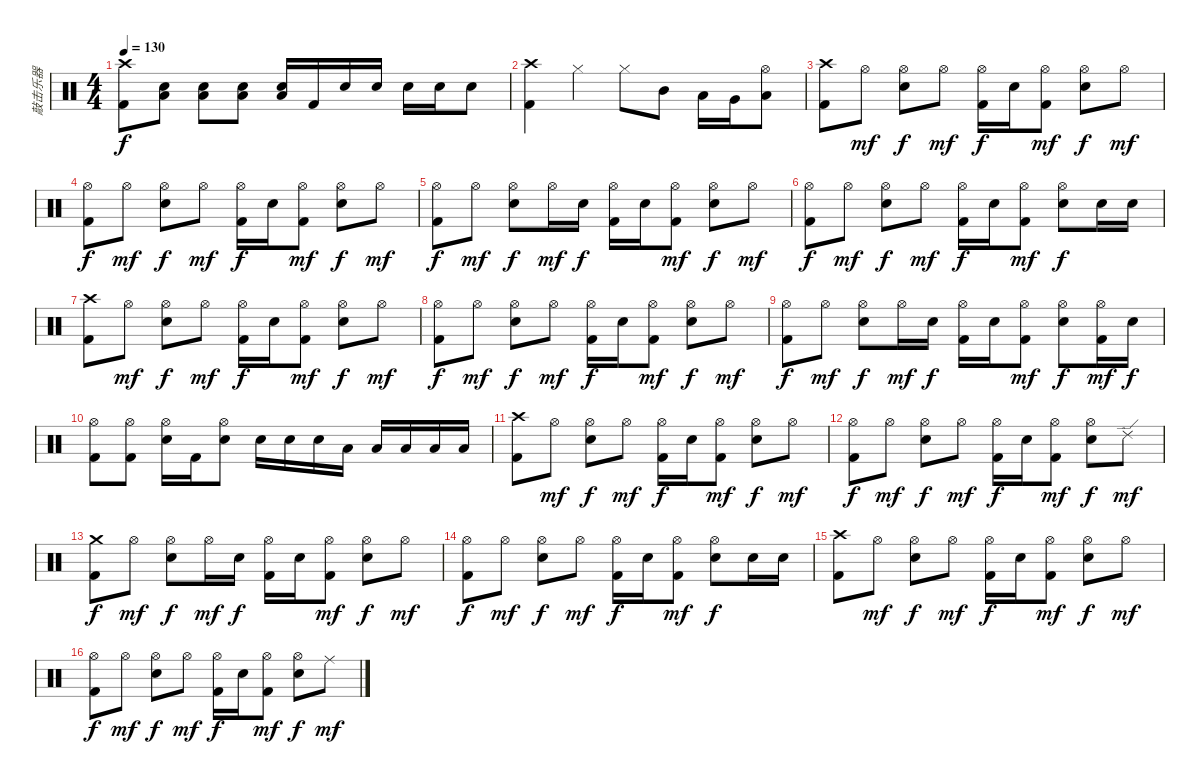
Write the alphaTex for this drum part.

\track ("敲击乐器" "敲击乐器") {instrument percussion}
\staff {score}
\articulation defaults
\ts (4 4)
\tempo 130
\clef neutral
\ks c
("Crash high (hit)" "Kick (hit) 2").8{dy f} ("Low Floor Tom (hit)" "Snare (hit) 2").8 ("Low Floor Tom (hit)" "Snare (hit) 2").8 ("Low Floor Tom (hit)" "Snare (hit) 2").8 ("Low Floor Tom (hit)" "Snare (hit) 2").16 "Kick (hit) 2".16 "Snare (hit) 2".16 "Snare (hit) 2".16 "Snare (hit) 2".16 "Snare (hit) 2".16 "Snare (hit) 2".8 |
("Crash high (hit)" "Kick (hit) 2").4 "Hi-Hat (closed)".4 "Hi-Hat (closed)".8 "Mid Tom (hit)".8 "Low Tom (hit)".16 "Very Low Tom (hit)".16 ("Hi-Hat (open)" "Low Floor Tom (hit)").8 |
("Crash high (hit)" "Kick (hit) 2").8 "Hi-Hat (open)".8{dy mf} ("Hi-Hat (open)" "Snare (hit) 2").8{dy f} "Hi-Hat (open)".8{dy mf} ("Hi-Hat (open)" "Kick (hit) 2").16{dy f} "Snare (hit) 2".16 ("Hi-Hat (open)" "Kick (hit) 2").8{dy mf} ("Hi-Hat (open)" "Snare (hit) 2").8{dy f} "Hi-Hat (open)".8{dy mf} |
("Hi-Hat (open)" "Kick (hit) 2").8{dy f} "Hi-Hat (open)".8{dy mf} ("Hi-Hat (open)" "Snare (hit) 2").8{dy f} "Hi-Hat (open)".8{dy mf} ("Hi-Hat (open)" "Kick (hit) 2").16{dy f} "Snare (hit) 2".16 ("Hi-Hat (open)" "Kick (hit) 2").8{dy mf} ("Hi-Hat (open)" "Snare (hit) 2").8{dy f} "Hi-Hat (open)".8{dy mf} |
("Hi-Hat (open)" "Kick (hit) 2").8{dy f} "Hi-Hat (open)".8{dy mf} ("Hi-Hat (open)" "Snare (hit) 2").8{dy f} "Hi-Hat (open)".16{dy mf} "Snare (hit) 2".16{dy f} ("Hi-Hat (open)" "Kick (hit) 2").16 "Snare (hit) 2".16 ("Hi-Hat (open)" "Kick (hit) 2").8{dy mf} ("Hi-Hat (open)" "Snare (hit) 2").8{dy f} "Hi-Hat (open)".8{dy mf} |
("Hi-Hat (open)" "Kick (hit) 2").8{dy f} "Hi-Hat (open)".8{dy mf} ("Hi-Hat (open)" "Snare (hit) 2").8{dy f} "Hi-Hat (open)".8{dy mf} ("Hi-Hat (open)" "Kick (hit) 2").16{dy f} "Snare (hit) 2".16 ("Hi-Hat (open)" "Kick (hit) 2").8{dy mf} ("Hi-Hat (open)" "Snare (hit) 2").8{dy f} "Snare (hit) 2".16 "Snare (hit) 2".16 |
("Crash high (hit)" "Kick (hit) 2").8 "Hi-Hat (open)".8{dy mf} ("Hi-Hat (open)" "Snare (hit) 2").8{dy f} "Hi-Hat (open)".8{dy mf} ("Hi-Hat (open)" "Kick (hit) 2").16{dy f} "Snare (hit) 2".16 ("Hi-Hat (open)" "Kick (hit) 2").8{dy mf} ("Hi-Hat (open)" "Snare (hit) 2").8{dy f} "Hi-Hat (open)".8{dy mf} |
("Hi-Hat (open)" "Kick (hit) 2").8{dy f} "Hi-Hat (open)".8{dy mf} ("Hi-Hat (open)" "Snare (hit) 2").8{dy f} "Hi-Hat (open)".8{dy mf} ("Hi-Hat (open)" "Kick (hit) 2").16{dy f} "Snare (hit) 2".16 ("Hi-Hat (open)" "Kick (hit) 2").8{dy mf} ("Hi-Hat (open)" "Snare (hit) 2").8{dy f} "Hi-Hat (open)".8{dy mf} |
("Hi-Hat (open)" "Kick (hit) 2").8{dy f} "Hi-Hat (open)".8{dy mf} ("Hi-Hat (open)" "Snare (hit) 2").8{dy f} "Hi-Hat (open)".16{dy mf} "Snare (hit) 2".16{dy f} ("Hi-Hat (open)" "Kick (hit) 2").16 "Snare (hit) 2".16 ("Hi-Hat (open)" "Kick (hit) 2").8{dy mf} ("Hi-Hat (open)" "Snare (hit) 2").8{dy f} ("Hi-Hat (open)" "Kick (hit) 2").16{dy mf} "Snare (hit) 2".16{dy f} |
("Hi-Hat (open)" "Kick (hit) 2").8 ("Hi-Hat (open)" "Kick (hit) 2").8 ("Hi-Hat (open)" "Snare (hit) 2").16 "Kick (hit) 2".16 ("Hi-Hat (open)" "Snare (hit) 2").8 "Snare (hit) 2".16 "Snare (hit) 2".16 "Snare (hit) 2".16 "Low Tom (hit)".16 "Low Tom (hit)".16 "Low Tom (hit)".16 "Low Floor Tom (hit)".16 "Low Floor Tom (hit)".16 |
("Crash high (hit)" "Kick (hit) 2").8 "Hi-Hat (open)".8{dy mf} ("Hi-Hat (open)" "Snare (hit) 2").8{dy f} "Hi-Hat (open)".8{dy mf} ("Hi-Hat (open)" "Kick (hit) 2").16{dy f} "Snare (hit) 2".16 ("Hi-Hat (open)" "Kick (hit) 2").8{dy mf} ("Hi-Hat (open)" "Snare (hit) 2").8{dy f} "Hi-Hat (open)".8{dy mf} |
("Hi-Hat (open)" "Kick (hit) 2").8{dy f} "Hi-Hat (open)".8{dy mf} ("Hi-Hat (open)" "Snare (hit) 2").8{dy f} "Hi-Hat (open)".8{dy mf} ("Hi-Hat (open)" "Kick (hit) 2").16{dy f} "Snare (hit) 2".16 ("Hi-Hat (open)" "Kick (hit) 2").8{dy mf} ("Hi-Hat (open)" "Snare (hit) 2").8{dy f} "Ride (edge) 2".8{dy mf} |
("Crash medium (hit)" "Kick (hit) 2").8{dy f} "Hi-Hat (open)".8{dy mf} ("Hi-Hat (open)" "Snare (hit) 2").8{dy f} "Hi-Hat (open)".16{dy mf} "Snare (hit) 2".16{dy f} ("Hi-Hat (open)" "Kick (hit) 2").16 "Snare (hit) 2".16 ("Hi-Hat (open)" "Kick (hit) 2").8{dy mf} ("Hi-Hat (open)" "Snare (hit) 2").8{dy f} "Hi-Hat (open)".8{dy mf} |
("Hi-Hat (open)" "Kick (hit) 2").8{dy f} "Hi-Hat (open)".8{dy mf} ("Hi-Hat (open)" "Snare (hit) 2").8{dy f} "Hi-Hat (open)".8{dy mf} ("Hi-Hat (open)" "Kick (hit) 2").16{dy f} "Snare (hit) 2".16 ("Hi-Hat (open)" "Kick (hit) 2").8{dy mf} ("Hi-Hat (open)" "Snare (hit) 2").8{dy f} "Snare (hit) 2".16 "Snare (hit) 2".16 |
("Crash high (hit)" "Kick (hit) 2").8 "Hi-Hat (open)".8{dy mf} ("Hi-Hat (open)" "Snare (hit) 2").8{dy f} "Hi-Hat (open)".8{dy mf} ("Hi-Hat (open)" "Kick (hit) 2").16{dy f} "Snare (hit) 2".16 ("Hi-Hat (open)" "Kick (hit) 2").8{dy mf} ("Hi-Hat (open)" "Snare (hit) 2").8{dy f} "Hi-Hat (open)".8{dy mf} |
("Hi-Hat (open)" "Kick (hit) 2").8{dy f} "Hi-Hat (open)".8{dy mf} ("Hi-Hat (open)" "Snare (hit) 2").8{dy f} "Hi-Hat (open)".8{dy mf} ("Hi-Hat (open)" "Kick (hit) 2").16{dy f} "Snare (hit) 2".16 ("Hi-Hat (open)" "Kick (hit) 2").8{dy mf} ("Hi-Hat (open)" "Snare (hit) 2").8{dy f} "Ride (middle)".8{dy mf}
